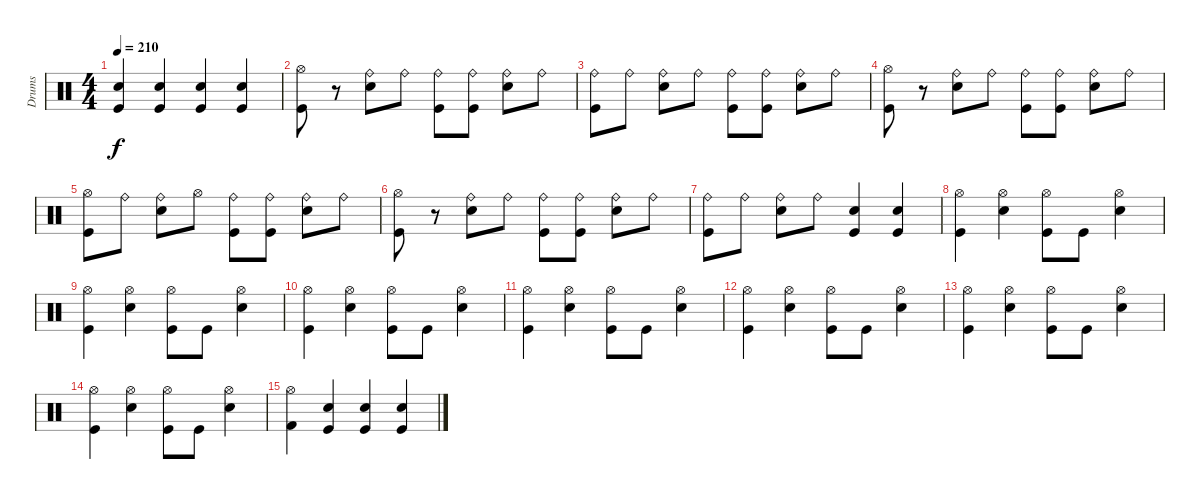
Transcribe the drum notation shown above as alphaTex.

\track ("Drums" "Drums") {instrument percussion}
\staff {score}
\articulation defaults
\ts (4 4)
\tempo 210
\clef neutral
\ks c
("Electric Snare (hit)" "Kick (hit)").4{dy f} ("Electric Snare (hit)" "Kick (hit)").4 ("Electric Snare (hit)" "Kick (hit)").4 ("Electric Snare (hit)" "Kick (hit)").4 |
("Hi-Hat (open)" "Kick (hit)").8 r.8 ("Ride (bell)" "Electric Snare (hit)").8 "Ride (bell)".8 ("Ride (bell)" "Kick (hit)").8 ("Ride (bell)" "Kick (hit)").8 ("Ride (bell)" "Electric Snare (hit)").8 "Ride (bell)".8 |
("Ride (bell)" "Kick (hit)").8 "Ride (bell)".8 ("Ride (bell)" "Electric Snare (hit)").8 "Ride (bell)".8 ("Ride (bell)" "Kick (hit)").8 ("Ride (bell)" "Kick (hit)").8 ("Ride (bell)" "Electric Snare (hit)").8 "Ride (bell)".8 |
("Hi-Hat (open)" "Kick (hit)").8 r.8 ("Ride (bell)" "Electric Snare (hit)").8 "Ride (bell)".8 ("Ride (bell)" "Kick (hit)").8 ("Ride (bell)" "Kick (hit)").8 ("Ride (bell)" "Electric Snare (hit)").8 "Ride (bell)".8 |
("Hi-Hat (open)" "Kick (hit)").8 "Ride (bell)".8 ("Ride (bell)" "Electric Snare (hit)").8 "Hi-Hat (open)".8 ("Ride (bell)" "Kick (hit)").8 ("Ride (bell)" "Kick (hit)").8 ("Ride (bell)" "Electric Snare (hit)").8 "Ride (bell)".8 |
("Hi-Hat (open)" "Kick (hit)").8 r.8 ("Ride (bell)" "Electric Snare (hit)").8 "Ride (bell)".8 ("Ride (bell)" "Kick (hit)").8 ("Ride (bell)" "Kick (hit)").8 ("Ride (bell)" "Electric Snare (hit)").8 "Ride (bell)".8 |
("Ride (bell)" "Kick (hit)").8 "Ride (bell)".8 ("Ride (bell)" "Electric Snare (hit)").8 "Ride (bell)".8 ("Electric Snare (hit)" "Kick (hit)").4 ("Electric Snare (hit)" "Kick (hit)").4 |
("Hi-Hat (open)" "Kick (hit)").4 ("Hi-Hat (open)" "Electric Snare (hit)").4 ("Hi-Hat (open)" "Kick (hit)").8 "Kick (hit)".8 ("Hi-Hat (open)" "Electric Snare (hit)").4 |
("Hi-Hat (open)" "Kick (hit)").4 ("Hi-Hat (open)" "Electric Snare (hit)").4 ("Hi-Hat (open)" "Kick (hit)").8 "Kick (hit)".8 ("Hi-Hat (open)" "Electric Snare (hit)").4 |
("Hi-Hat (open)" "Kick (hit)").4 ("Hi-Hat (open)" "Electric Snare (hit)").4 ("Hi-Hat (open)" "Kick (hit)").8 "Kick (hit)".8 ("Hi-Hat (open)" "Electric Snare (hit)").4 |
("Hi-Hat (open)" "Kick (hit)").4 ("Hi-Hat (open)" "Electric Snare (hit)").4 ("Hi-Hat (open)" "Kick (hit)").8 "Kick (hit)".8 ("Hi-Hat (open)" "Electric Snare (hit)").4 |
("Hi-Hat (open)" "Kick (hit)").4 ("Hi-Hat (open)" "Electric Snare (hit)").4 ("Hi-Hat (open)" "Kick (hit)").8 "Kick (hit)".8 ("Hi-Hat (open)" "Electric Snare (hit)").4 |
("Hi-Hat (open)" "Kick (hit)").4 ("Hi-Hat (open)" "Electric Snare (hit)").4 ("Hi-Hat (open)" "Kick (hit)").8 "Kick (hit)".8 ("Hi-Hat (open)" "Electric Snare (hit)").4 |
("Hi-Hat (open)" "Kick (hit)").4 ("Hi-Hat (open)" "Electric Snare (hit)").4 ("Hi-Hat (open)" "Kick (hit)").8 "Kick (hit)".8 ("Hi-Hat (open)" "Electric Snare (hit)").4 |
("Hi-Hat (open)" "Kick (hit) 2").4 ("Electric Snare (hit)" "Kick (hit)").4 ("Electric Snare (hit)" "Kick (hit)").4 ("Electric Snare (hit)" "Kick (hit)").4
